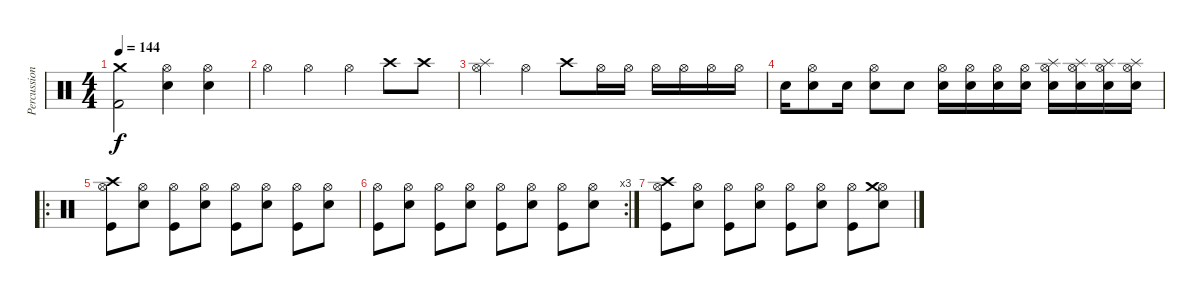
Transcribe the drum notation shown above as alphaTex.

\track ("Percussion" "Percussion") {instrument percussion}
\staff {score}
\articulation defaults
\ts (4 4)
\tempo 144
\clef neutral
\ks c
("Crash medium (hit)" "Kick (hit) 2").2{dy f} ("Hi-Hat (open)" "Snare (hit)").4 ("Hi-Hat (open)" "Snare (hit)").4 |
"Hi-Hat (open)".4 "Hi-Hat (open)".4 "Hi-Hat (open)".4 "Crash high (hit)".8 "Crash high (hit)".8 |
("Hi-Hat (open)" "Splash (hit)").4 "Hi-Hat (open)".4 "Crash high (hit)".8 "Hi-Hat (open)".16 "Hi-Hat (open)".16 "Hi-Hat (open)".16 "Hi-Hat (open)".16 "Hi-Hat (open)".16 "Hi-Hat (open)".16 |
"Snare (hit) 2".16 ("Hi-Hat (open)" "Snare (hit) 2").8 "Snare (hit) 2".16 ("Hi-Hat (open)" "Snare (hit) 2").8 "Snare (hit) 2".8 ("Hi-Hat (open)" "Snare (hit) 2").16 ("Hi-Hat (open)" "Snare (hit) 2").16 ("Hi-Hat (open)" "Snare (hit) 2").16 ("Hi-Hat (open)" "Snare (hit) 2").16 ("Hi-Hat (open)" "Snare (hit) 2" "Splash (hit)").16 ("Hi-Hat (open)" "Snare (hit) 2" "Splash (hit)").16 ("Hi-Hat (open)" "Snare (hit) 2" "Splash (hit)").16 ("Hi-Hat (open)" "Snare (hit) 2" "Splash (hit)").16 |
\ro
("Kick (hit)" "Hi-Hat (open)" "Crash high (hit)").8 ("Snare (hit) 2" "Hi-Hat (open)").8 ("Kick (hit)" "Hi-Hat (open)").8 ("Snare (hit) 2" "Hi-Hat (open)").8 ("Kick (hit)" "Hi-Hat (open)").8 ("Snare (hit) 2" "Hi-Hat (open)").8 ("Kick (hit)" "Hi-Hat (open)").8 ("Snare (hit) 2" "Hi-Hat (open)").8 |
\rc 3
("Kick (hit)" "Hi-Hat (open)").8 ("Snare (hit) 2" "Hi-Hat (open)").8 ("Kick (hit)" "Hi-Hat (open)").8 ("Snare (hit) 2" "Hi-Hat (open)").8 ("Kick (hit)" "Hi-Hat (open)").8 ("Snare (hit) 2" "Hi-Hat (open)").8 ("Kick (hit)" "Hi-Hat (open)").8 ("Snare (hit) 2" "Hi-Hat (open)").8 |
("Kick (hit)" "Hi-Hat (open)" "Crash high (hit)").8 ("Snare (hit) 2" "Hi-Hat (open)").8 ("Kick (hit)" "Hi-Hat (open)").8 ("Snare (hit) 2" "Hi-Hat (open)").8 ("Kick (hit)" "Hi-Hat (open)").8 ("Snare (hit) 2" "Hi-Hat (open)").8 ("Kick (hit)" "Hi-Hat (open)").8 ("Snare (hit) 2" "Hi-Hat (open)" "Crash medium (hit)").8
